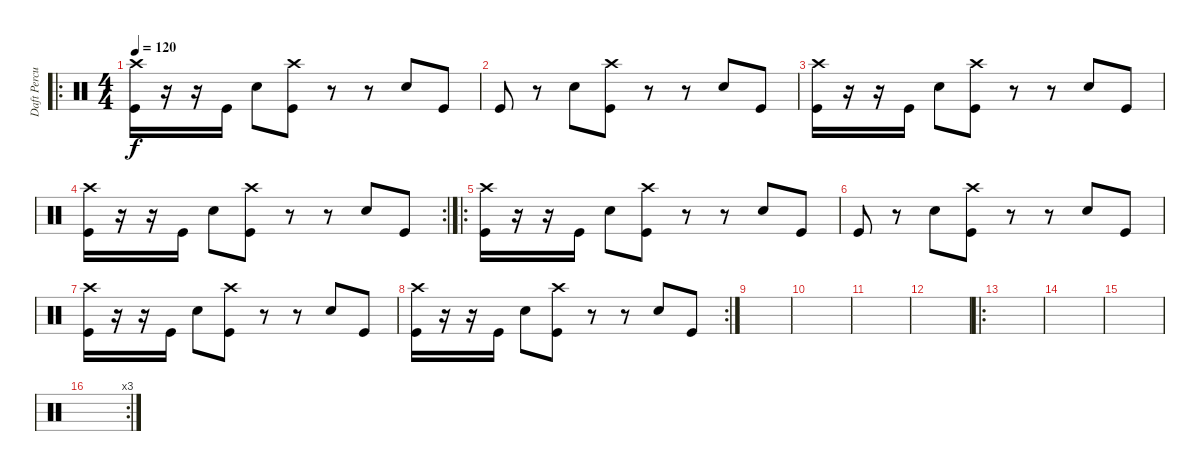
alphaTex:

\track ("Daft Percussion 1" "Daft Percu") {instrument percussion}
\staff {score}
\articulation defaults
\ro
\ts (4 4)
\tempo 120
\clef neutral
\ks c
("Crash high (hit)" "Kick (hit)").16{dy f} r.16 r.16 "Kick (hit)".16 "Electric Snare (hit)".8 ("Crash high (hit)" "Kick (hit)").8 r.8 r.8 "Electric Snare (hit)".8 "Kick (hit)".8 |
"Kick (hit)".8 r.8 "Electric Snare (hit)".8 ("Crash high (hit)" "Kick (hit)").8 r.8 r.8 "Electric Snare (hit)".8 "Kick (hit)".8 |
("Crash high (hit)" "Kick (hit)").16 r.16 r.16 "Kick (hit)".16 "Electric Snare (hit)".8 ("Crash high (hit)" "Kick (hit)").8 r.8 r.8 "Electric Snare (hit)".8 "Kick (hit)".8 |
\rc 2
("Crash high (hit)" "Kick (hit)").16 r.16 r.16 "Kick (hit)".16 "Electric Snare (hit)".8 ("Crash high (hit)" "Kick (hit)").8 r.8 r.8 "Electric Snare (hit)".8 "Kick (hit)".8 |
\ro
("Crash high (hit)" "Kick (hit)").16 r.16 r.16 "Kick (hit)".16 "Electric Snare (hit)".8 ("Crash high (hit)" "Kick (hit)").8 r.8 r.8 "Electric Snare (hit)".8 "Kick (hit)".8 |
"Kick (hit)".8 r.8 "Electric Snare (hit)".8 ("Crash high (hit)" "Kick (hit)").8 r.8 r.8 "Electric Snare (hit)".8 "Kick (hit)".8 |
("Crash high (hit)" "Kick (hit)").16 r.16 r.16 "Kick (hit)".16 "Electric Snare (hit)".8 ("Crash high (hit)" "Kick (hit)").8 r.8 r.8 "Electric Snare (hit)".8 "Kick (hit)".8 |
\rc 2
("Crash high (hit)" "Kick (hit)").16 r.16 r.16 "Kick (hit)".16 "Electric Snare (hit)".8 ("Crash high (hit)" "Kick (hit)").8 r.8 r.8 "Electric Snare (hit)".8 "Kick (hit)".8 |
|
|
|
|
\ro
|
|
|
\rc 3
